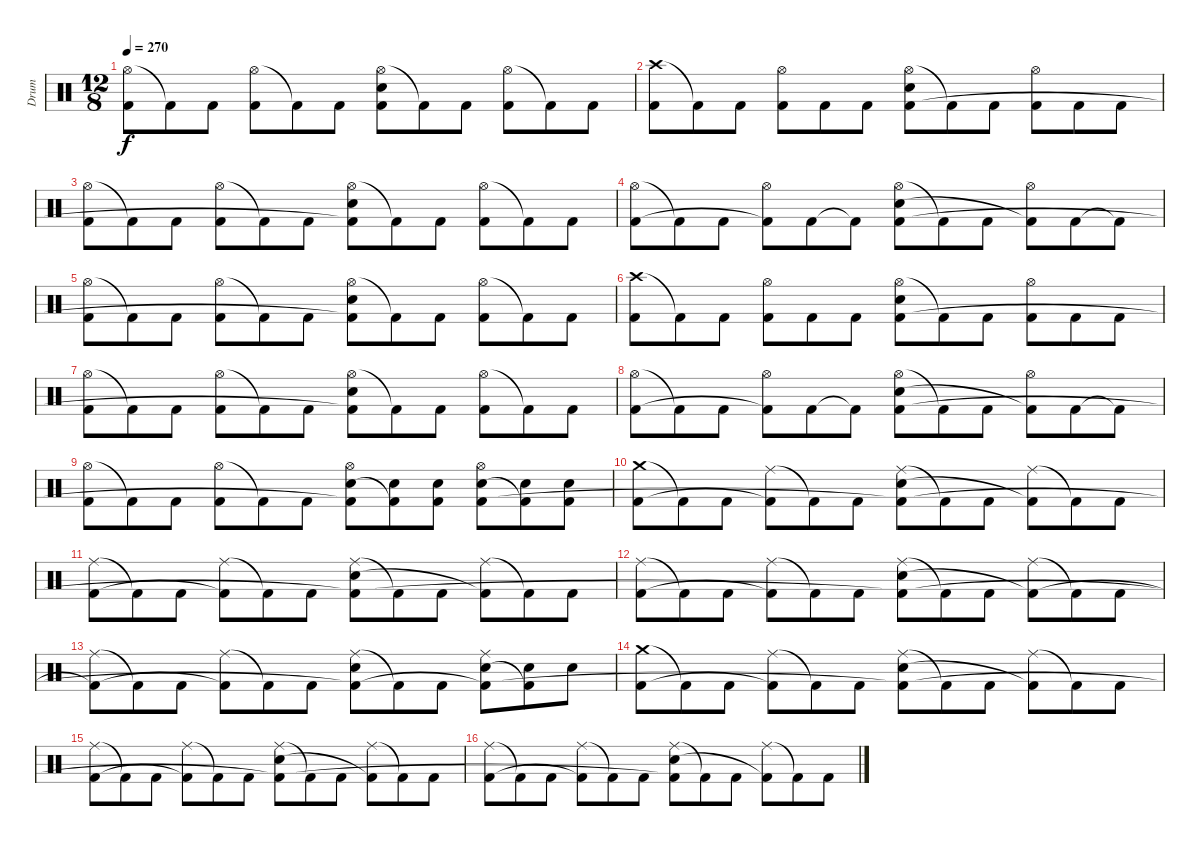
\track ("Drum" "Drum") {instrument percussion}
\staff {score}
\articulation defaults
\ts (12 8)
\tempo 270
\clef neutral
\ks c
("Hi-Hat (open)" "Kick (hit) 2").8{dy f} "Kick (hit) 2"{t}.8 "Kick (hit) 2".8 ("Hi-Hat (open)" "Kick (hit) 2").8 "Kick (hit) 2"{t}.8 "Kick (hit) 2".8 ("Hi-Hat (open)" "Electric Snare (hit)" "Kick (hit) 2"{t}).8 "Kick (hit) 2"{t}.8 "Kick (hit) 2".8 ("Hi-Hat (open)" "Kick (hit) 2").8 "Kick (hit) 2"{t}.8 "Kick (hit) 2".8 |
("Crash high (hit)" "Kick (hit) 2").8 "Kick (hit) 2"{t}.8 "Kick (hit) 2".8 ("Hi-Hat (open)" "Kick (hit) 2").8 "Kick (hit) 2".8 "Kick (hit) 2".8 ("Hi-Hat (open)" "Electric Snare (hit)" "Kick (hit) 2").8 "Kick (hit) 2"{t}.8 "Kick (hit) 2".8 ("Hi-Hat (open)" "Kick (hit) 2").8 "Kick (hit) 2".8 "Kick (hit) 2".8 |
("Hi-Hat (open)" "Kick (hit) 2").8 "Kick (hit) 2"{t}.8 "Kick (hit) 2".8 ("Hi-Hat (open)" "Kick (hit) 2").8 "Kick (hit) 2"{t}.8 "Kick (hit) 2".8 ("Hi-Hat (open)" "Electric Snare (hit)" "Kick (hit) 2"{t}).8 "Kick (hit) 2"{t}.8 "Kick (hit) 2".8 ("Hi-Hat (open)" "Kick (hit) 2").8 "Kick (hit) 2"{t}.8 "Kick (hit) 2".8 |
("Hi-Hat (open)" "Kick (hit) 2").8 "Kick (hit) 2"{t}.8 "Kick (hit) 2".8 ("Hi-Hat (open)" "Kick (hit) 2"{t}).8 "Kick (hit) 2".8 "Kick (hit) 2"{t}.8 ("Hi-Hat (open)" "Electric Snare (hit)" "Kick (hit) 2").8 "Kick (hit) 2"{t}.8 "Kick (hit) 2".8 ("Hi-Hat (open)" "Kick (hit) 2"{t}).8 "Kick (hit) 2".8 "Kick (hit) 2"{t}.8 |
("Hi-Hat (open)" "Kick (hit) 2").8 "Kick (hit) 2"{t}.8 "Kick (hit) 2".8 ("Hi-Hat (open)" "Kick (hit) 2").8 "Kick (hit) 2"{t}.8 "Kick (hit) 2".8 ("Hi-Hat (open)" "Electric Snare (hit)" "Kick (hit) 2"{t}).8 "Kick (hit) 2"{t}.8 "Kick (hit) 2".8 ("Hi-Hat (open)" "Kick (hit) 2").8 "Kick (hit) 2"{t}.8 "Kick (hit) 2".8 |
("Crash high (hit)" "Kick (hit) 2").8 "Kick (hit) 2"{t}.8 "Kick (hit) 2".8 ("Hi-Hat (open)" "Kick (hit) 2").8 "Kick (hit) 2".8 "Kick (hit) 2".8 ("Hi-Hat (open)" "Electric Snare (hit)" "Kick (hit) 2").8 "Kick (hit) 2"{t}.8 "Kick (hit) 2".8 ("Hi-Hat (open)" "Kick (hit) 2").8 "Kick (hit) 2".8 "Kick (hit) 2".8 |
("Hi-Hat (open)" "Kick (hit) 2").8 "Kick (hit) 2"{t}.8 "Kick (hit) 2".8 ("Hi-Hat (open)" "Kick (hit) 2").8 "Kick (hit) 2"{t}.8 "Kick (hit) 2".8 ("Hi-Hat (open)" "Electric Snare (hit)" "Kick (hit) 2"{t}).8 "Kick (hit) 2"{t}.8 "Kick (hit) 2".8 ("Hi-Hat (open)" "Kick (hit) 2").8 "Kick (hit) 2"{t}.8 "Kick (hit) 2".8 |
("Hi-Hat (open)" "Kick (hit) 2").8 "Kick (hit) 2"{t}.8 "Kick (hit) 2".8 ("Hi-Hat (open)" "Kick (hit) 2"{t}).8 "Kick (hit) 2".8 "Kick (hit) 2"{t}.8 ("Hi-Hat (open)" "Electric Snare (hit)" "Kick (hit) 2").8 "Kick (hit) 2"{t}.8 "Kick (hit) 2".8 ("Hi-Hat (open)" "Kick (hit) 2"{t}).8 "Kick (hit) 2".8 "Kick (hit) 2"{t}.8 |
("Hi-Hat (open)" "Kick (hit) 2").8 "Kick (hit) 2"{t}.8 "Kick (hit) 2".8 ("Hi-Hat (open)" "Kick (hit) 2").8 "Kick (hit) 2"{t}.8 "Kick (hit) 2".8 ("Hi-Hat (open)" "Electric Snare (hit)" "Kick (hit) 2"{t}).8 ("Electric Snare (hit)" "Kick (hit) 2"{t}).8 ("Electric Snare (hit)" "Kick (hit) 2").8 ("Hi-Hat (open)" "Electric Snare (hit)" "Kick (hit) 2").8 ("Electric Snare (hit)" "Kick (hit) 2"{t}).8 ("Electric Snare (hit)" "Kick (hit) 2").8 |
("Crash medium (hit)" "Kick (hit) 2").8 "Kick (hit) 2"{t}.8 "Kick (hit) 2".8 ("Ride (middle)" "Kick (hit) 2"{t}).8 "Kick (hit) 2"{t}.8 "Kick (hit) 2".8 ("Ride (middle)" "Electric Snare (hit)" "Kick (hit) 2"{t}).8 "Kick (hit) 2"{t}.8 "Kick (hit) 2".8 ("Ride (middle)" "Kick (hit) 2"{t}).8 "Kick (hit) 2"{t}.8 "Kick (hit) 2".8 |
("Ride (middle)" "Kick (hit) 2").8 "Kick (hit) 2"{t}.8 "Kick (hit) 2".8 ("Ride (middle)" "Kick (hit) 2"{t}).8 "Kick (hit) 2"{t}.8 "Kick (hit) 2".8 ("Ride (middle)" "Electric Snare (hit)" "Kick (hit) 2"{t}).8 "Kick (hit) 2"{t}.8 "Kick (hit) 2".8 ("Ride (middle)" "Kick (hit) 2"{t}).8 "Kick (hit) 2"{t}.8 "Kick (hit) 2".8 |
("Ride (middle)" "Kick (hit) 2").8 "Kick (hit) 2"{t}.8 "Kick (hit) 2".8 ("Ride (middle)" "Kick (hit) 2"{t}).8 "Kick (hit) 2"{t}.8 "Kick (hit) 2".8 ("Ride (middle)" "Electric Snare (hit)" "Kick (hit) 2"{t}).8 "Kick (hit) 2"{t}.8 "Kick (hit) 2".8 ("Ride (middle)" "Kick (hit) 2"{t}).8 "Kick (hit) 2"{t}.8 "Kick (hit) 2".8 |
("Ride (middle)" "Kick (hit) 2"{t}).8 "Kick (hit) 2"{t}.8 "Kick (hit) 2".8 ("Ride (middle)" "Kick (hit) 2"{t}).8 "Kick (hit) 2"{t}.8 "Kick (hit) 2".8 ("Ride (middle)" "Electric Snare (hit)" "Kick (hit) 2"{t}).8 "Kick (hit) 2"{t}.8 "Kick (hit) 2".8 ("Ride (middle)" "Electric Snare (hit)" "Kick (hit) 2"{t}).8 ("Electric Snare (hit)" "Kick (hit) 2"{t}).8 "Electric Snare (hit)".8 |
("Crash medium (hit)" "Kick (hit) 2").8 "Kick (hit) 2"{t}.8 "Kick (hit) 2".8 ("Ride (middle)" "Kick (hit) 2"{t}).8 "Kick (hit) 2"{t}.8 "Kick (hit) 2".8 ("Ride (middle)" "Electric Snare (hit)" "Kick (hit) 2"{t}).8 "Kick (hit) 2"{t}.8 "Kick (hit) 2".8 ("Ride (middle)" "Kick (hit) 2"{t}).8 "Kick (hit) 2"{t}.8 "Kick (hit) 2".8 |
("Ride (middle)" "Kick (hit) 2").8 "Kick (hit) 2"{t}.8 "Kick (hit) 2".8 ("Ride (middle)" "Kick (hit) 2"{t}).8 "Kick (hit) 2"{t}.8 "Kick (hit) 2".8 ("Ride (middle)" "Electric Snare (hit)" "Kick (hit) 2"{t}).8 "Kick (hit) 2"{t}.8 "Kick (hit) 2".8 ("Ride (middle)" "Kick (hit) 2"{t}).8 "Kick (hit) 2"{t}.8 "Kick (hit) 2".8 |
("Ride (middle)" "Kick (hit) 2").8 "Kick (hit) 2"{t}.8 "Kick (hit) 2".8 ("Ride (middle)" "Kick (hit) 2"{t}).8 "Kick (hit) 2"{t}.8 "Kick (hit) 2".8 ("Ride (middle)" "Electric Snare (hit)" "Kick (hit) 2"{t}).8 "Kick (hit) 2"{t}.8 "Kick (hit) 2".8 ("Ride (middle)" "Kick (hit) 2"{t}).8 "Kick (hit) 2"{t}.8 "Kick (hit) 2".8
